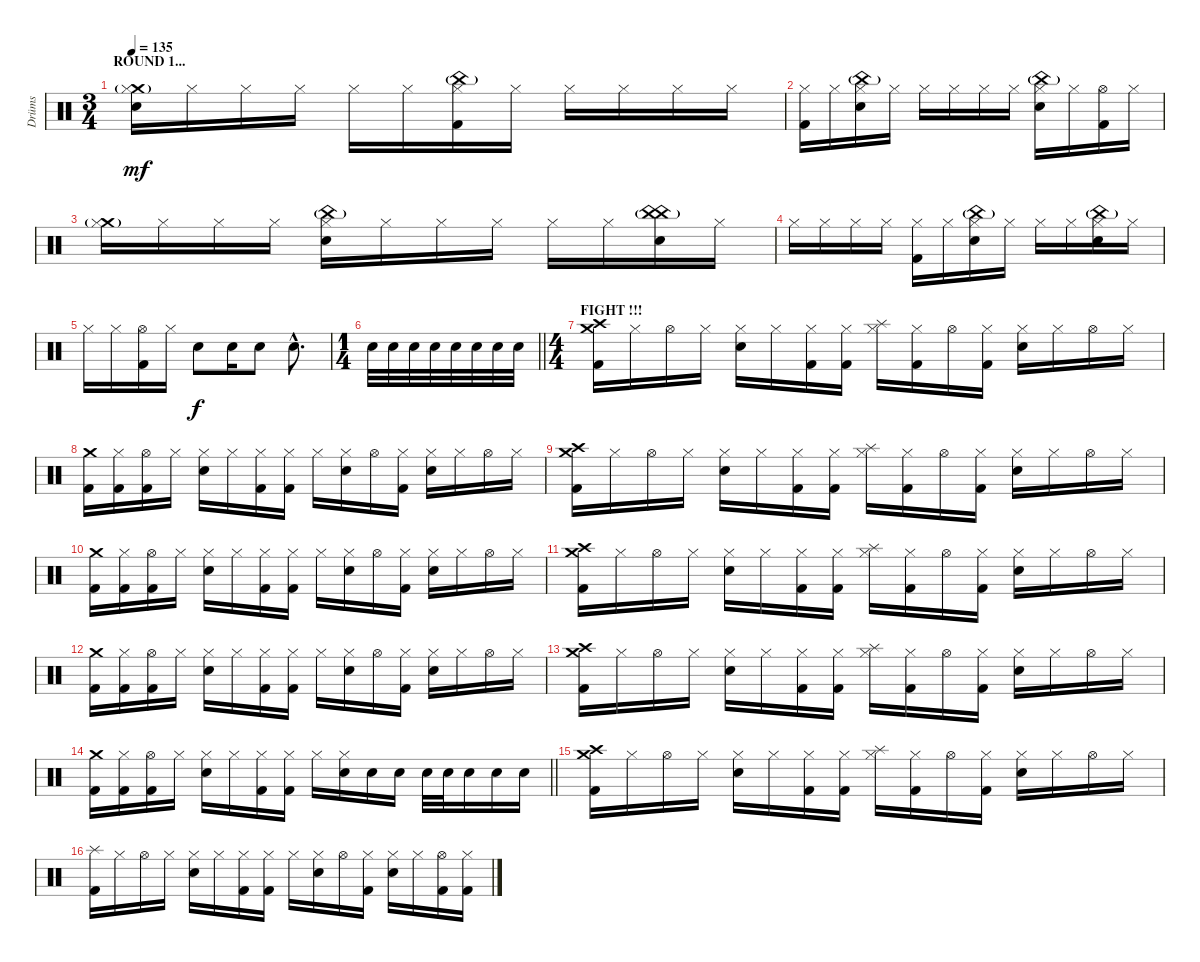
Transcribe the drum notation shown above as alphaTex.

\track ("Drüms" "Drüms") {instrument percussion}
\staff {score}
\articulation defaults
\ts (3 4)
\section ("" "ROUND 1... ")
\tempo 135
\clef neutral
\ks c
("Crash medium (hit)"{g} "Hi-Hat (closed)" "Electric Snare (hit)").16{dy mf} "Hi-Hat (closed)".16 "Hi-Hat (closed)".16 "Hi-Hat (closed)".16 "Hi-Hat (closed)".16 "Hi-Hat (closed)".16 ("China (hit)"{g} "Hi-Hat (closed)" "Kick (hit) 2").16 "Hi-Hat (closed)".16 "Hi-Hat (closed)".16 "Hi-Hat (closed)".16 "Hi-Hat (closed)".16 "Hi-Hat (closed)".16 |
("Hi-Hat (closed)" "Kick (hit) 2").16 "Hi-Hat (closed)".16 ("China (hit)"{g} "Hi-Hat (closed)" "Electric Snare (hit)").16 "Hi-Hat (closed)".16 "Hi-Hat (closed)".16 "Hi-Hat (closed)".16 "Hi-Hat (closed)".16 "Hi-Hat (closed)".16 ("China (hit)"{g} "Hi-Hat (closed)" "Electric Snare (hit)").16 "Hi-Hat (closed)".16 ("Hi-Hat (open)" "Kick (hit) 2").16 "Hi-Hat (closed)".16 |
("Crash medium (hit)"{g} "Hi-Hat (closed)").16 "Hi-Hat (closed)".16 "Hi-Hat (closed)".16 "Hi-Hat (closed)".16 ("China (hit)"{g} "Hi-Hat (closed)" "Electric Snare (hit)").16 "Hi-Hat (closed)".16 "Hi-Hat (closed)".16 "Hi-Hat (closed)".16 "Hi-Hat (closed)".16 "Hi-Hat (closed)".16 ("China (hit)"{g} "China (hit)" "Electric Snare (hit)").16 "Hi-Hat (closed)".16 |
"Hi-Hat (closed)".16 "Hi-Hat (closed)".16 "Hi-Hat (closed)".16 "Hi-Hat (closed)".16 ("Hi-Hat (closed)" "Kick (hit) 2").16 "Hi-Hat (closed)".16 ("China (hit)"{g} "Hi-Hat (closed)" "Electric Snare (hit)").16 "Hi-Hat (closed)".16 "Hi-Hat (closed)".16 "Hi-Hat (closed)".16 ("China (hit)"{g} "Hi-Hat (closed)" "Electric Snare (hit)").16 "Hi-Hat (closed)".16 |
"Hi-Hat (closed)".16 "Hi-Hat (closed)".16 ("Hi-Hat (open)" "Kick (hit) 2").16 "Hi-Hat (closed)".16 "Electric Snare (hit)".8{dy f} "Electric Snare (hit)".16 "Electric Snare (hit)".8 "Electric Snare (hit)"{hac}.8{d} |
\ts (1 4)
\barLineRight lightlight "Electric Snare (hit)".32 "Electric Snare (hit)".32 "Electric Snare (hit)".32 "Electric Snare (hit)".32 "Electric Snare (hit)".32 "Electric Snare (hit)".32 "Electric Snare (hit)".32 "Electric Snare (hit)".32
|
\ts (4 4)
\section ("" "FIGHT !!!")
("Crash medium (hit)" "Crash high (hit)" "Kick (hit) 2").16 "Hi-Hat (closed)".16 "Hi-Hat (open)".16 "Hi-Hat (closed)".16 ("Hi-Hat (closed)" "Electric Snare (hit)").16 "Hi-Hat (closed)".16 ("Hi-Hat (closed)" "Kick (hit) 2").16 ("Hi-Hat (closed)" "Kick (hit) 2").16 ("Splash (hit)" "Hi-Hat (closed)").16 ("Hi-Hat (closed)" "Kick (hit) 2").16 "Hi-Hat (open)".16 ("Hi-Hat (closed)" "Kick (hit) 2").16 ("Hi-Hat (closed)" "Electric Snare (hit)").16 "Hi-Hat (closed)".16 "Hi-Hat (open)".16 "Hi-Hat (closed)".16 |
("Crash medium (hit)" "Kick (hit) 2").16 ("Hi-Hat (closed)" "Kick (hit) 2").16 ("Hi-Hat (open)" "Kick (hit) 2").16 "Hi-Hat (closed)".16 ("Hi-Hat (closed)" "Electric Snare (hit)").16 "Hi-Hat (closed)".16 ("Hi-Hat (closed)" "Kick (hit) 2").16 ("Hi-Hat (closed)" "Kick (hit) 2").16 "Hi-Hat (closed)".16 ("Hi-Hat (closed)" "Electric Snare (hit)").16 "Hi-Hat (open)".16 ("Hi-Hat (closed)" "Kick (hit) 2").16 ("Hi-Hat (closed)" "Electric Snare (hit)").16 "Hi-Hat (closed)".16 "Hi-Hat (open)".16 "Hi-Hat (closed)".16 |
("Crash medium (hit)" "Crash high (hit)" "Kick (hit) 2").16 "Hi-Hat (closed)".16 "Hi-Hat (open)".16 "Hi-Hat (closed)".16 ("Hi-Hat (closed)" "Electric Snare (hit)").16 "Hi-Hat (closed)".16 ("Hi-Hat (closed)" "Kick (hit) 2").16 ("Hi-Hat (closed)" "Kick (hit) 2").16 ("Splash (hit)" "Hi-Hat (closed)").16 ("Hi-Hat (closed)" "Kick (hit) 2").16 "Hi-Hat (open)".16 ("Hi-Hat (closed)" "Kick (hit) 2").16 ("Hi-Hat (closed)" "Electric Snare (hit)").16 "Hi-Hat (closed)".16 "Hi-Hat (open)".16 "Hi-Hat (closed)".16 |
("Crash medium (hit)" "Kick (hit) 2").16 ("Hi-Hat (closed)" "Kick (hit) 2").16 ("Hi-Hat (open)" "Kick (hit) 2").16 "Hi-Hat (closed)".16 ("Hi-Hat (closed)" "Electric Snare (hit)").16 "Hi-Hat (closed)".16 ("Hi-Hat (closed)" "Kick (hit) 2").16 ("Hi-Hat (closed)" "Kick (hit) 2").16 "Hi-Hat (closed)".16 ("Hi-Hat (closed)" "Electric Snare (hit)").16 "Hi-Hat (open)".16 ("Hi-Hat (closed)" "Kick (hit) 2").16 ("Hi-Hat (closed)" "Electric Snare (hit)").16 "Hi-Hat (closed)".16 "Hi-Hat (open)".16 "Hi-Hat (closed)".16 |
("Crash medium (hit)" "Crash high (hit)" "Kick (hit) 2").16 "Hi-Hat (closed)".16 "Hi-Hat (open)".16 "Hi-Hat (closed)".16 ("Hi-Hat (closed)" "Electric Snare (hit)").16 "Hi-Hat (closed)".16 ("Hi-Hat (closed)" "Kick (hit) 2").16 ("Hi-Hat (closed)" "Kick (hit) 2").16 ("Splash (hit)" "Hi-Hat (closed)").16 ("Hi-Hat (closed)" "Kick (hit) 2").16 "Hi-Hat (open)".16 ("Hi-Hat (closed)" "Kick (hit) 2").16 ("Hi-Hat (closed)" "Electric Snare (hit)").16 "Hi-Hat (closed)".16 "Hi-Hat (open)".16 "Hi-Hat (closed)".16 |
("Crash medium (hit)" "Kick (hit) 2").16 ("Hi-Hat (closed)" "Kick (hit) 2").16 ("Hi-Hat (open)" "Kick (hit) 2").16 "Hi-Hat (closed)".16 ("Hi-Hat (closed)" "Electric Snare (hit)").16 "Hi-Hat (closed)".16 ("Hi-Hat (closed)" "Kick (hit) 2").16 ("Hi-Hat (closed)" "Kick (hit) 2").16 "Hi-Hat (closed)".16 ("Hi-Hat (closed)" "Electric Snare (hit)").16 "Hi-Hat (open)".16 ("Hi-Hat (closed)" "Kick (hit) 2").16 ("Hi-Hat (closed)" "Electric Snare (hit)").16 "Hi-Hat (closed)".16 "Hi-Hat (open)".16 "Hi-Hat (closed)".16 |
("Crash medium (hit)" "Crash high (hit)" "Kick (hit) 2").16 "Hi-Hat (closed)".16 "Hi-Hat (open)".16 "Hi-Hat (closed)".16 ("Hi-Hat (closed)" "Electric Snare (hit)").16 "Hi-Hat (closed)".16 ("Hi-Hat (closed)" "Kick (hit) 2").16 ("Hi-Hat (closed)" "Kick (hit) 2").16 ("Splash (hit)" "Hi-Hat (closed)").16 ("Hi-Hat (closed)" "Kick (hit) 2").16 "Hi-Hat (open)".16 ("Hi-Hat (closed)" "Kick (hit) 2").16 ("Hi-Hat (closed)" "Electric Snare (hit)").16 "Hi-Hat (closed)".16 "Hi-Hat (open)".16 "Hi-Hat (closed)".16 |
\barLineRight lightlight
("Crash medium (hit)" "Kick (hit) 2").16 ("Hi-Hat (closed)" "Kick (hit) 2").16 ("Hi-Hat (open)" "Kick (hit) 2").16 "Hi-Hat (closed)".16 ("Hi-Hat (closed)" "Electric Snare (hit)").16 "Hi-Hat (closed)".16 ("Hi-Hat (closed)" "Kick (hit) 2").16 ("Hi-Hat (closed)" "Kick (hit) 2").16 "Hi-Hat (closed)".16 ("Hi-Hat (closed)" "Electric Snare (hit)").16 "Electric Snare (hit)".16 "Electric Snare (hit)".16 "Electric Snare (hit)".32 "Electric Snare (hit)".32 "Electric Snare (hit)".16 "Electric Snare (hit)".16 "Electric Snare (hit)".16 |
\section ("" "")
("Crash medium (hit)" "Crash high (hit)" "Kick (hit) 2").16 "Hi-Hat (closed)".16 "Hi-Hat (open)".16 "Hi-Hat (closed)".16 ("Hi-Hat (closed)" "Electric Snare (hit)").16 "Hi-Hat (closed)".16 ("Hi-Hat (closed)" "Kick (hit) 2").16 ("Hi-Hat (closed)" "Kick (hit) 2").16 ("Splash (hit)" "Hi-Hat (closed)").16 ("Hi-Hat (closed)" "Kick (hit) 2").16 "Hi-Hat (open)".16 ("Hi-Hat (closed)" "Kick (hit) 2").16 ("Hi-Hat (closed)" "Electric Snare (hit)").16 "Hi-Hat (closed)".16 "Hi-Hat (open)".16 "Hi-Hat (closed)".16 |
("Splash (hit)" "Kick (hit) 2").16 "Hi-Hat (closed)".16 "Hi-Hat (open)".16 "Hi-Hat (closed)".16 ("Hi-Hat (closed)" "Electric Snare (hit)").16 "Hi-Hat (closed)".16 ("Hi-Hat (closed)" "Kick (hit) 2").16 ("Hi-Hat (closed)" "Kick (hit) 2").16 "Hi-Hat (closed)".16 ("Hi-Hat (closed)" "Electric Snare (hit)").16 "Hi-Hat (open)".16 ("Hi-Hat (closed)" "Kick (hit) 2").16 ("Hi-Hat (closed)" "Electric Snare (hit)").16 "Hi-Hat (closed)".16 ("Hi-Hat (open)" "Kick (hit) 2").16 ("Hi-Hat (closed)" "Kick (hit) 2").16
